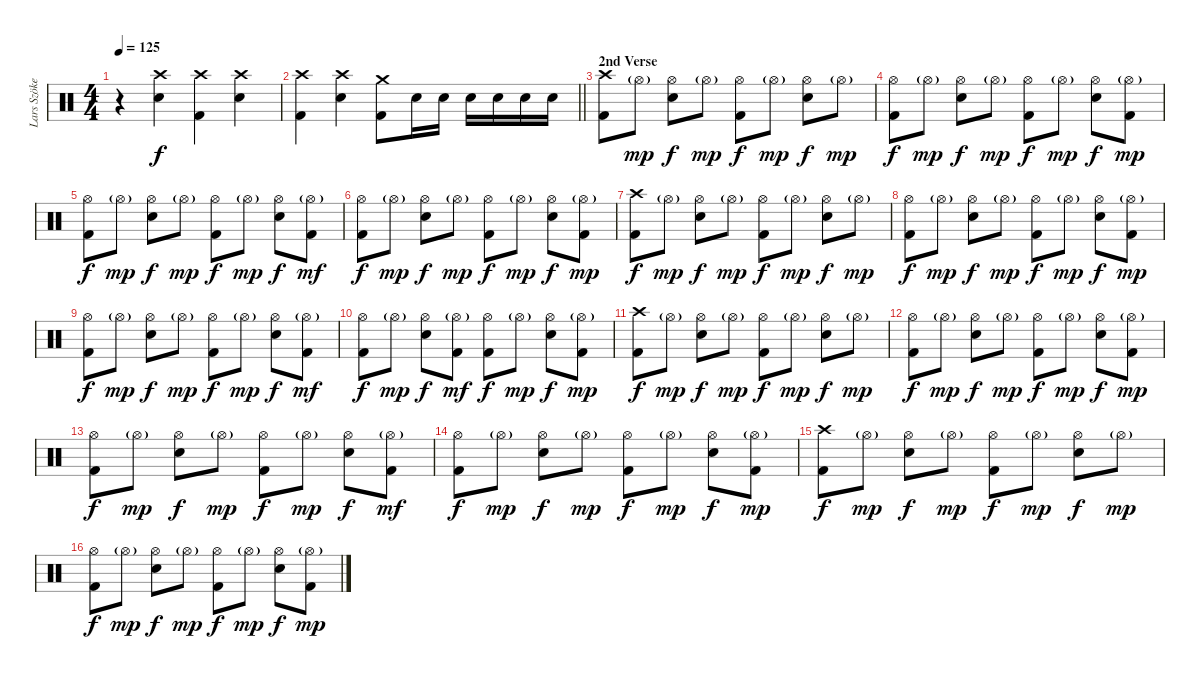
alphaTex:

\track ("Lars Szöke" "Lars Szöke") {instrument percussion}
\staff {score}
\articulation defaults
\ts (4 4)
\tempo 125
\clef neutral
\ks c
r.4{dy f} ("Crash high (hit)" "Snare (hit) 2").4 ("Crash high (hit)" "Kick (hit) 2").4 ("Crash high (hit)" "Snare (hit) 2").4 |
\barLineRight lightlight
("Crash high (hit)" "Kick (hit) 2").4 ("Crash high (hit)" "Snare (hit) 2").4 ("Crash medium (hit)" "Kick (hit) 2").8 "Snare (hit) 2".16 "Snare (hit) 2".16 "Snare (hit) 2".16 "Snare (hit) 2".16 "Snare (hit) 2".16 "Snare (hit) 2".16 |
\section ("" "2nd Verse")
("Crash high (hit)" "Kick (hit) 2").8 "Hi-Hat (open)"{g}.8{dy mp} ("Hi-Hat (open)" "Snare (hit) 2").8{dy f} "Hi-Hat (open)"{g}.8{dy mp} ("Hi-Hat (open)" "Kick (hit) 2").8{dy f} "Hi-Hat (open)"{g}.8{dy mp} ("Hi-Hat (open)" "Snare (hit) 2").8{dy f} "Hi-Hat (open)"{g}.8{dy mp} |
("Hi-Hat (open)" "Kick (hit) 2").8{dy f} "Hi-Hat (open)"{g}.8{dy mp} ("Hi-Hat (open)" "Snare (hit) 2").8{dy f} "Hi-Hat (open)"{g}.8{dy mp} ("Hi-Hat (open)" "Kick (hit) 2").8{dy f} "Hi-Hat (open)"{g}.8{dy mp} ("Hi-Hat (open)" "Snare (hit) 2").8{dy f} ("Hi-Hat (open)"{g} "Kick (hit) 2").8{dy mp} |
("Hi-Hat (open)" "Kick (hit) 2").8{dy f} "Hi-Hat (open)"{g}.8{dy mp} ("Hi-Hat (open)" "Snare (hit) 2").8{dy f} "Hi-Hat (open)"{g}.8{dy mp} ("Hi-Hat (open)" "Kick (hit) 2").8{dy f} "Hi-Hat (open)"{g}.8{dy mp} ("Hi-Hat (open)" "Snare (hit) 2").8{dy f} ("Hi-Hat (open)"{g} "Kick (hit) 2").8{dy mf} |
("Hi-Hat (open)" "Kick (hit) 2").8{dy f} "Hi-Hat (open)"{g}.8{dy mp} ("Hi-Hat (open)" "Snare (hit) 2").8{dy f} "Hi-Hat (open)"{g}.8{dy mp} ("Hi-Hat (open)" "Kick (hit) 2").8{dy f} "Hi-Hat (open)"{g}.8{dy mp} ("Hi-Hat (open)" "Snare (hit) 2").8{dy f} ("Hi-Hat (open)"{g} "Kick (hit) 2").8{dy mp} |
("Crash high (hit)" "Kick (hit) 2").8{dy f} "Hi-Hat (open)"{g}.8{dy mp} ("Hi-Hat (open)" "Snare (hit) 2").8{dy f} "Hi-Hat (open)"{g}.8{dy mp} ("Hi-Hat (open)" "Kick (hit) 2").8{dy f} "Hi-Hat (open)"{g}.8{dy mp} ("Hi-Hat (open)" "Snare (hit) 2").8{dy f} "Hi-Hat (open)"{g}.8{dy mp} |
("Hi-Hat (open)" "Kick (hit) 2").8{dy f} "Hi-Hat (open)"{g}.8{dy mp} ("Hi-Hat (open)" "Snare (hit) 2").8{dy f} "Hi-Hat (open)"{g}.8{dy mp} ("Hi-Hat (open)" "Kick (hit) 2").8{dy f} "Hi-Hat (open)"{g}.8{dy mp} ("Hi-Hat (open)" "Snare (hit) 2").8{dy f} ("Hi-Hat (open)"{g} "Kick (hit) 2").8{dy mp} |
("Hi-Hat (open)" "Kick (hit) 2").8{dy f} "Hi-Hat (open)"{g}.8{dy mp} ("Hi-Hat (open)" "Snare (hit) 2").8{dy f} "Hi-Hat (open)"{g}.8{dy mp} ("Hi-Hat (open)" "Kick (hit) 2").8{dy f} "Hi-Hat (open)"{g}.8{dy mp} ("Hi-Hat (open)" "Snare (hit) 2").8{dy f} ("Hi-Hat (open)"{g} "Kick (hit) 2").8{dy mf} |
("Hi-Hat (open)" "Kick (hit) 2").8{dy f} "Hi-Hat (open)"{g}.8{dy mp} ("Hi-Hat (open)" "Snare (hit) 2").8{dy f} ("Hi-Hat (open)"{g} "Kick (hit) 2").8{dy mf} ("Hi-Hat (open)" "Kick (hit) 2").8{dy f} "Hi-Hat (open)"{g}.8{dy mp} ("Hi-Hat (open)" "Snare (hit) 2").8{dy f} ("Hi-Hat (open)"{g} "Kick (hit) 2").8{dy mp} |
("Crash high (hit)" "Kick (hit) 2").8{dy f} "Hi-Hat (open)"{g}.8{dy mp} ("Hi-Hat (open)" "Snare (hit) 2").8{dy f} "Hi-Hat (open)"{g}.8{dy mp} ("Hi-Hat (open)" "Kick (hit) 2").8{dy f} "Hi-Hat (open)"{g}.8{dy mp} ("Hi-Hat (open)" "Snare (hit) 2").8{dy f} "Hi-Hat (open)"{g}.8{dy mp} |
("Hi-Hat (open)" "Kick (hit) 2").8{dy f} "Hi-Hat (open)"{g}.8{dy mp} ("Hi-Hat (open)" "Snare (hit) 2").8{dy f} "Hi-Hat (open)"{g}.8{dy mp} ("Hi-Hat (open)" "Kick (hit) 2").8{dy f} "Hi-Hat (open)"{g}.8{dy mp} ("Hi-Hat (open)" "Snare (hit) 2").8{dy f} ("Hi-Hat (open)"{g} "Kick (hit) 2").8{dy mp} |
("Hi-Hat (open)" "Kick (hit) 2").8{dy f} "Hi-Hat (open)"{g}.8{dy mp} ("Hi-Hat (open)" "Snare (hit) 2").8{dy f} "Hi-Hat (open)"{g}.8{dy mp} ("Hi-Hat (open)" "Kick (hit) 2").8{dy f} "Hi-Hat (open)"{g}.8{dy mp} ("Hi-Hat (open)" "Snare (hit) 2").8{dy f} ("Hi-Hat (open)"{g} "Kick (hit) 2").8{dy mf} |
("Hi-Hat (open)" "Kick (hit) 2").8{dy f} "Hi-Hat (open)"{g}.8{dy mp} ("Hi-Hat (open)" "Snare (hit) 2").8{dy f} "Hi-Hat (open)"{g}.8{dy mp} ("Hi-Hat (open)" "Kick (hit) 2").8{dy f} "Hi-Hat (open)"{g}.8{dy mp} ("Hi-Hat (open)" "Snare (hit) 2").8{dy f} ("Hi-Hat (open)"{g} "Kick (hit) 2").8{dy mp} |
("Crash high (hit)" "Kick (hit) 2").8{dy f} "Hi-Hat (open)"{g}.8{dy mp} ("Hi-Hat (open)" "Snare (hit) 2").8{dy f} "Hi-Hat (open)"{g}.8{dy mp} ("Hi-Hat (open)" "Kick (hit) 2").8{dy f} "Hi-Hat (open)"{g}.8{dy mp} ("Hi-Hat (open)" "Snare (hit) 2").8{dy f} "Hi-Hat (open)"{g}.8{dy mp} |
("Hi-Hat (open)" "Kick (hit) 2").8{dy f} "Hi-Hat (open)"{g}.8{dy mp} ("Hi-Hat (open)" "Snare (hit) 2").8{dy f} "Hi-Hat (open)"{g}.8{dy mp} ("Hi-Hat (open)" "Kick (hit) 2").8{dy f} "Hi-Hat (open)"{g}.8{dy mp} ("Hi-Hat (open)" "Snare (hit) 2").8{dy f} ("Hi-Hat (open)"{g} "Kick (hit) 2").8{dy mp}
